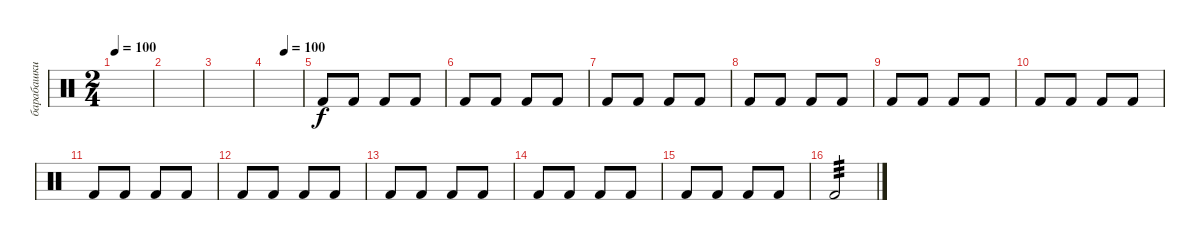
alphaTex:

\track ("барабашки low" "барабашки ") {instrument percussion}
\staff {score}
\articulation defaults
\ts (2 4)
\tempo 100
\tempo 35
\tempo 100
\clef neutral
\ks c
|
|
|
\tempo (100 0.5)
|
"Kick (hit) 2".8 "Kick (hit) 2".8 "Kick (hit) 2".8 "Kick (hit) 2".8 |
"Kick (hit) 2".8 "Kick (hit) 2".8 "Kick (hit) 2".8 "Kick (hit) 2".8 |
"Kick (hit) 2".8 "Kick (hit) 2".8 "Kick (hit) 2".8 "Kick (hit) 2".8 |
"Kick (hit) 2".8 "Kick (hit) 2".8 "Kick (hit) 2".8 "Kick (hit) 2".8 |
"Kick (hit) 2".8 "Kick (hit) 2".8 "Kick (hit) 2".8 "Kick (hit) 2".8 |
"Kick (hit) 2".8 "Kick (hit) 2".8 "Kick (hit) 2".8 "Kick (hit) 2".8 |
"Kick (hit) 2".8 "Kick (hit) 2".8 "Kick (hit) 2".8 "Kick (hit) 2".8 |
"Kick (hit) 2".8 "Kick (hit) 2".8 "Kick (hit) 2".8 "Kick (hit) 2".8 |
"Kick (hit) 2".8 "Kick (hit) 2".8 "Kick (hit) 2".8 "Kick (hit) 2".8 |
"Kick (hit) 2".8 "Kick (hit) 2".8 "Kick (hit) 2".8 "Kick (hit) 2".8 |
"Kick (hit) 2".8 "Kick (hit) 2".8 "Kick (hit) 2".8 "Kick (hit) 2".8 |
"Kick (hit) 2".2{tp 3}
